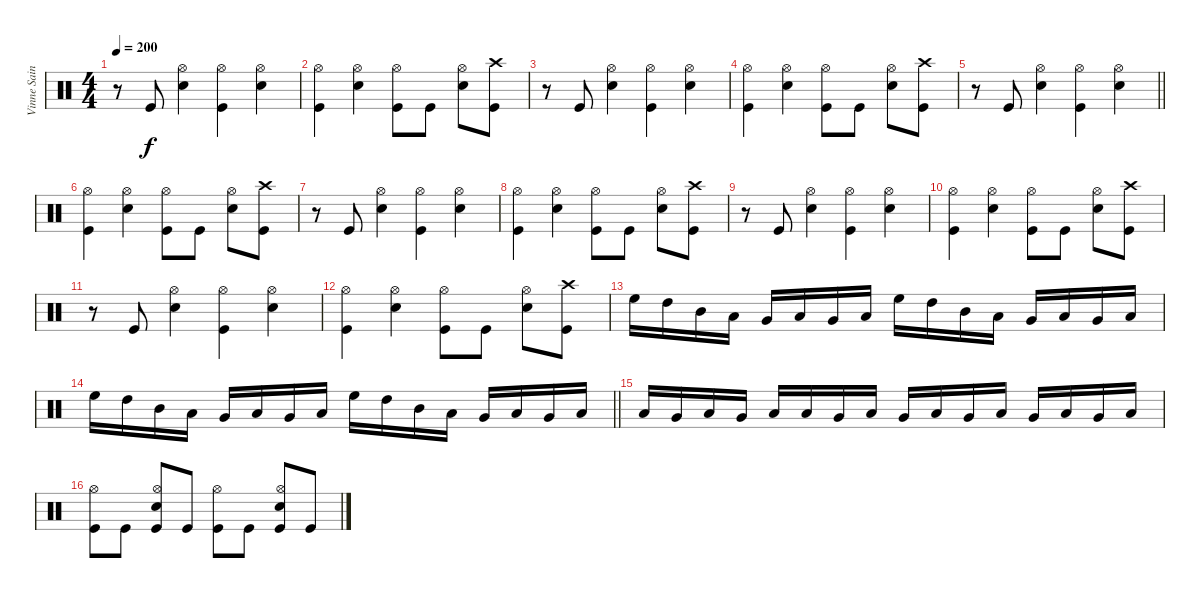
\track ("Vinne Saint James" "Vinne Sain") {instrument percussion}
\staff {score}
\articulation defaults
\ts (4 4)
\tempo 200
\clef neutral
\ks c
r.8{dy f} "Kick (hit)".8 ("Hi-Hat (open)" "Electric Snare (hit)").4 ("Hi-Hat (open)" "Kick (hit)").4 ("Hi-Hat (open)" "Electric Snare (hit)").4 |
("Hi-Hat (open)" "Kick (hit)").4 ("Hi-Hat (open)" "Electric Snare (hit)").4 ("Hi-Hat (open)" "Kick (hit)").8 "Kick (hit)".8 ("Hi-Hat (open)" "Electric Snare (hit)").8 ("Crash high (hit)" "Kick (hit)").8 |
r.8 "Kick (hit)".8 ("Hi-Hat (open)" "Electric Snare (hit)").4 ("Hi-Hat (open)" "Kick (hit)").4 ("Hi-Hat (open)" "Electric Snare (hit)").4 |
("Hi-Hat (open)" "Kick (hit)").4 ("Hi-Hat (open)" "Electric Snare (hit)").4 ("Hi-Hat (open)" "Kick (hit)").8 "Kick (hit)".8 ("Hi-Hat (open)" "Electric Snare (hit)").8 ("Crash high (hit)" "Kick (hit)").8 |
\barLineRight lightlight
r.8 "Kick (hit)".8 ("Hi-Hat (open)" "Electric Snare (hit)").4 ("Hi-Hat (open)" "Kick (hit)").4 ("Hi-Hat (open)" "Electric Snare (hit)").4 |
("Hi-Hat (open)" "Kick (hit)").4 ("Hi-Hat (open)" "Electric Snare (hit)").4 ("Hi-Hat (open)" "Kick (hit)").8 "Kick (hit)".8 ("Hi-Hat (open)" "Electric Snare (hit)").8 ("Crash high (hit)" "Kick (hit)").8 |
r.8 "Kick (hit)".8 ("Hi-Hat (open)" "Electric Snare (hit)").4 ("Hi-Hat (open)" "Kick (hit)").4 ("Hi-Hat (open)" "Electric Snare (hit)").4 |
("Hi-Hat (open)" "Kick (hit)").4 ("Hi-Hat (open)" "Electric Snare (hit)").4 ("Hi-Hat (open)" "Kick (hit)").8 "Kick (hit)".8 ("Hi-Hat (open)" "Electric Snare (hit)").8 ("Crash high (hit)" "Kick (hit)").8 |
r.8 "Kick (hit)".8 ("Hi-Hat (open)" "Electric Snare (hit)").4 ("Hi-Hat (open)" "Kick (hit)").4 ("Hi-Hat (open)" "Electric Snare (hit)").4 |
("Hi-Hat (open)" "Kick (hit)").4 ("Hi-Hat (open)" "Electric Snare (hit)").4 ("Hi-Hat (open)" "Kick (hit)").8 "Kick (hit)".8 ("Hi-Hat (open)" "Electric Snare (hit)").8 ("Crash high (hit)" "Kick (hit)").8 |
r.8 "Kick (hit)".8 ("Hi-Hat (open)" "Electric Snare (hit)").4 ("Hi-Hat (open)" "Kick (hit)").4 ("Hi-Hat (open)" "Electric Snare (hit)").4 |
("Hi-Hat (open)" "Kick (hit)").4 ("Hi-Hat (open)" "Electric Snare (hit)").4 ("Hi-Hat (open)" "Kick (hit)").8 "Kick (hit)".8 ("Hi-Hat (open)" "Electric Snare (hit)").8 ("Crash high (hit)" "Kick (hit)").8 |
"High Floor Tom (hit)".16 "High Tom (hit)".16 "Mid Tom (hit)".16 "Low Tom (hit)".16 "Very Low Tom (hit)".16 "Low Floor Tom (hit)".16 "Very Low Tom (hit)".16 "Low Floor Tom (hit)".16 "High Floor Tom (hit)".16 "High Tom (hit)".16 "Mid Tom (hit)".16 "Low Tom (hit)".16 "Very Low Tom (hit)".16 "Low Floor Tom (hit)".16 "Very Low Tom (hit)".16 "Low Floor Tom (hit)".16 |
\barLineRight lightlight "High Floor Tom (hit)".16 "High Tom (hit)".16 "Mid Tom (hit)".16 "Low Tom (hit)".16 "Very Low Tom (hit)".16 "Low Floor Tom (hit)".16 "Very Low Tom (hit)".16 "Low Floor Tom (hit)".16 "High Floor Tom (hit)".16 "High Tom (hit)".16 "Mid Tom (hit)".16 "Low Tom (hit)".16 "Very Low Tom (hit)".16 "Low Floor Tom (hit)".16 "Very Low Tom (hit)".16 "Low Floor Tom (hit)".16
|
"Low Tom (hit)".16 "Very Low Tom (hit)".16 "Low Floor Tom (hit)".16 "Very Low Tom (hit)".16 "Low Floor Tom (hit)".16 "Low Tom (hit)".16 "Very Low Tom (hit)".16 "Low Floor Tom (hit)".16 "Very Low Tom (hit)".16 "Low Tom (hit)".16 "Very Low Tom (hit)".16 "Low Floor Tom (hit)".16 "Very Low Tom (hit)".16 "Low Floor Tom (hit)".16 "Very Low Tom (hit)".16 "Low Tom (hit)".16 |
("Hi-Hat (open)" "Kick (hit)").8 "Kick (hit)".8 ("Hi-Hat (open)" "Electric Snare (hit)" "Kick (hit)").8 "Kick (hit)".8 ("Hi-Hat (open)" "Kick (hit)").8 "Kick (hit)".8 ("Hi-Hat (open)" "Electric Snare (hit)" "Kick (hit)").8 "Kick (hit)".8
